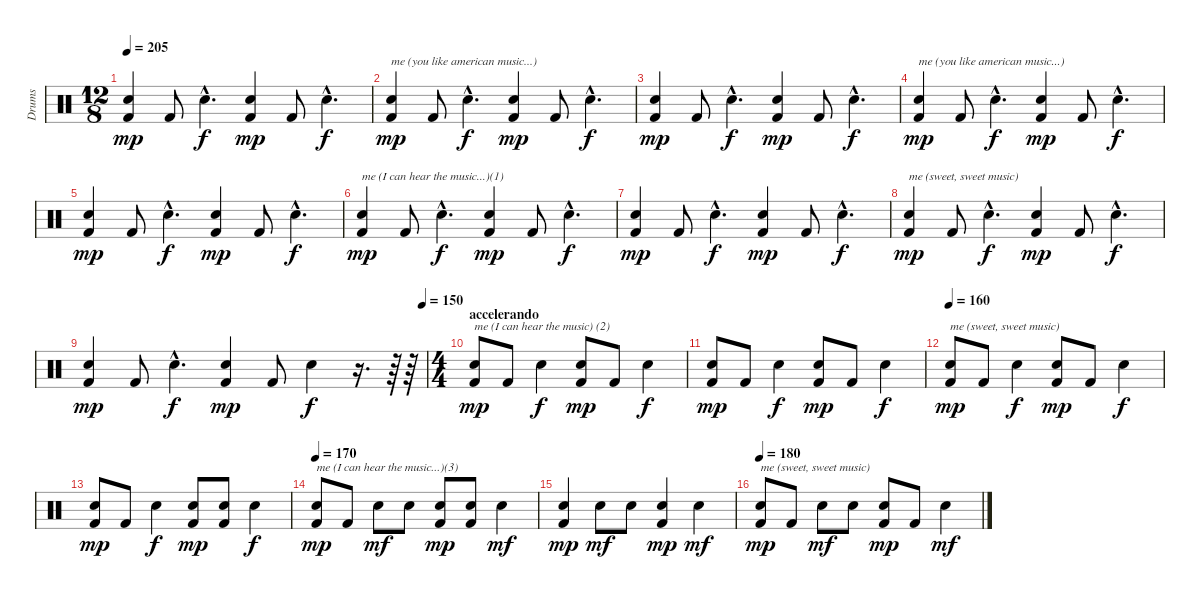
\track ("Drums" "Drums") {instrument percussion}
\staff {score}
\articulation defaults
\ts (12 8)
\tempo 205
\clef neutral
\ks c
("Snare (hit) 2" "Kick (hit) 2").4{dy mp} "Kick (hit) 2".8 "Snare (hit) 2"{hac}.4{d dy f} ("Snare (hit) 2" "Kick (hit) 2").4{dy mp} "Kick (hit) 2".8 "Snare (hit) 2"{hac}.4{d dy f} |
("Snare (hit) 2" "Kick (hit) 2").4{txt "me (you like american music...)" dy mp} "Kick (hit) 2".8 "Snare (hit) 2"{hac}.4{d dy f} ("Snare (hit) 2" "Kick (hit) 2").4{dy mp} "Kick (hit) 2".8 "Snare (hit) 2"{hac}.4{d dy f} |
("Snare (hit) 2" "Kick (hit) 2").4{dy mp} "Kick (hit) 2".8 "Snare (hit) 2"{hac}.4{d dy f} ("Snare (hit) 2" "Kick (hit) 2").4{dy mp} "Kick (hit) 2".8 "Snare (hit) 2"{hac}.4{d dy f} |
("Snare (hit) 2" "Kick (hit) 2").4{txt "me (you like american music...)" dy mp} "Kick (hit) 2".8 "Snare (hit) 2"{hac}.4{d dy f} ("Snare (hit) 2" "Kick (hit) 2").4{dy mp} "Kick (hit) 2".8 "Snare (hit) 2"{hac}.4{d dy f} |
("Snare (hit) 2" "Kick (hit) 2").4{dy mp} "Kick (hit) 2".8 "Snare (hit) 2"{hac}.4{d dy f} ("Snare (hit) 2" "Kick (hit) 2").4{dy mp} "Kick (hit) 2".8 "Snare (hit) 2"{hac}.4{d dy f} |
("Snare (hit) 2" "Kick (hit) 2").4{txt "me (I can hear the music...)(1)" dy mp} "Kick (hit) 2".8 "Snare (hit) 2"{hac}.4{d dy f} ("Snare (hit) 2" "Kick (hit) 2").4{dy mp} "Kick (hit) 2".8 "Snare (hit) 2"{hac}.4{d dy f} |
("Snare (hit) 2" "Kick (hit) 2").4{dy mp} "Kick (hit) 2".8 "Snare (hit) 2"{hac}.4{d dy f} ("Snare (hit) 2" "Kick (hit) 2").4{dy mp} "Kick (hit) 2".8 "Snare (hit) 2"{hac}.4{d dy f} |
("Snare (hit) 2" "Kick (hit) 2").4{txt "me (sweet, sweet music)" dy mp} "Kick (hit) 2".8 "Snare (hit) 2"{hac}.4{d dy f} ("Snare (hit) 2" "Kick (hit) 2").4{dy mp} "Kick (hit) 2".8 "Snare (hit) 2"{hac}.4{d dy f} |
\tempo (150 0.9895833333333334)
("Snare (hit) 2" "Kick (hit) 2").4{dy mp} "Kick (hit) 2".8 "Snare (hit) 2"{hac}.4{d dy f} ("Snare (hit) 2" "Kick (hit) 2").4{dy mp} "Kick (hit) 2".8 "Snare (hit) 2".4{dy f} r.16{d} r.64 r.64 |
\ts (4 4)
\section ("" "accelerando")
("Snare (hit) 2" "Kick (hit) 2").8{txt "me (I can hear the music) (2)" dy mp} "Kick (hit) 2".8 "Snare (hit) 2".4{dy f} ("Snare (hit) 2" "Kick (hit) 2").8{dy mp} "Kick (hit) 2".8 "Snare (hit) 2".4{dy f} |
("Snare (hit) 2" "Kick (hit) 2").8{dy mp} "Kick (hit) 2".8 "Snare (hit) 2".4{dy f} ("Snare (hit) 2" "Kick (hit) 2").8{dy mp} "Kick (hit) 2".8 "Snare (hit) 2".4{dy f} |
\tempo 160
("Snare (hit) 2" "Kick (hit) 2").8{txt "me (sweet, sweet music)" dy mp} "Kick (hit) 2".8 "Snare (hit) 2".4{dy f} ("Snare (hit) 2" "Kick (hit) 2").8{dy mp} "Kick (hit) 2".8 "Snare (hit) 2".4{dy f} |
("Snare (hit) 2" "Kick (hit) 2").8{dy mp} "Kick (hit) 2".8 "Snare (hit) 2".4{dy f} ("Snare (hit) 2" "Kick (hit) 2").8{dy mp} ("Snare (hit) 2" "Kick (hit) 2").8 "Snare (hit) 2".4{dy f} |
\tempo 170
("Snare (hit) 2" "Kick (hit) 2").8{txt "me (I can hear the music...)(3)" dy mp} "Kick (hit) 2".8 "Snare (hit) 2".8{dy mf} "Snare (hit) 2".8 ("Snare (hit) 2" "Kick (hit) 2").8{dy mp} ("Snare (hit) 2" "Kick (hit) 2").8 "Snare (hit) 2".4{dy mf} |
("Snare (hit) 2" "Kick (hit) 2").4{dy mp} "Snare (hit) 2".8{dy mf} "Snare (hit) 2".8 ("Snare (hit) 2" "Kick (hit) 2").4{dy mp} "Snare (hit) 2".4{dy mf} |
\tempo 180
("Snare (hit) 2" "Kick (hit) 2").8{txt "me (sweet, sweet music)" dy mp} "Kick (hit) 2".8 "Snare (hit) 2".8{dy mf} "Snare (hit) 2".8 ("Snare (hit) 2" "Kick (hit) 2").8{dy mp} "Kick (hit) 2".8 "Snare (hit) 2".4{dy mf}
